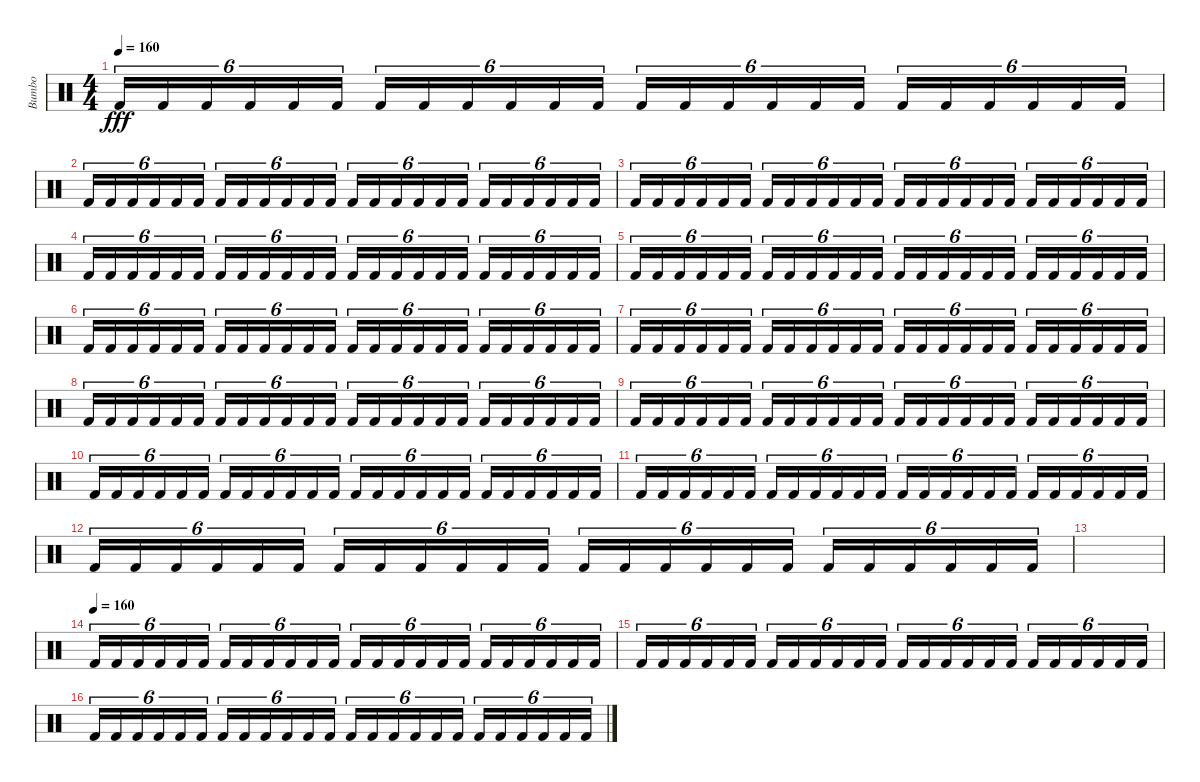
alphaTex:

\track ("Bumbo" "Bumbo") {instrument percussion}
\staff {score}
\articulation defaults
\ts (4 4)
\tempo 160
\clef neutral
\ks c "Kick (hit) 2".16{tu (6 4) dy fff} "Kick (hit) 2".16{tu (6 4)} "Kick (hit) 2".16{tu (6 4)} "Kick (hit) 2".16{tu (6 4)} "Kick (hit) 2".16{tu (6 4)} "Kick (hit) 2".16{tu (6 4)} "Kick (hit) 2".16{tu (6 4)} "Kick (hit) 2".16{tu (6 4)} "Kick (hit) 2".16{tu (6 4)} "Kick (hit) 2".16{tu (6 4)} "Kick (hit) 2".16{tu (6 4)} "Kick (hit) 2".16{tu (6 4)} "Kick (hit) 2".16{tu (6 4)} "Kick (hit) 2".16{tu (6 4)} "Kick (hit) 2".16{tu (6 4)} "Kick (hit) 2".16{tu (6 4)} "Kick (hit) 2".16{tu (6 4)} "Kick (hit) 2".16{tu (6 4)} "Kick (hit) 2".16{tu (6 4)} "Kick (hit) 2".16{tu (6 4)} "Kick (hit) 2".16{tu (6 4)} "Kick (hit) 2".16{tu (6 4)} "Kick (hit) 2".16{tu (6 4)} "Kick (hit) 2".16{tu (6 4)}
|
"Kick (hit) 2".16{tu (6 4)} "Kick (hit) 2".16{tu (6 4)} "Kick (hit) 2".16{tu (6 4)} "Kick (hit) 2".16{tu (6 4)} "Kick (hit) 2".16{tu (6 4)} "Kick (hit) 2".16{tu (6 4)} "Kick (hit) 2".16{tu (6 4)} "Kick (hit) 2".16{tu (6 4)} "Kick (hit) 2".16{tu (6 4)} "Kick (hit) 2".16{tu (6 4)} "Kick (hit) 2".16{tu (6 4)} "Kick (hit) 2".16{tu (6 4)} "Kick (hit) 2".16{tu (6 4)} "Kick (hit) 2".16{tu (6 4)} "Kick (hit) 2".16{tu (6 4)} "Kick (hit) 2".16{tu (6 4)} "Kick (hit) 2".16{tu (6 4)} "Kick (hit) 2".16{tu (6 4)} "Kick (hit) 2".16{tu (6 4)} "Kick (hit) 2".16{tu (6 4)} "Kick (hit) 2".16{tu (6 4)} "Kick (hit) 2".16{tu (6 4)} "Kick (hit) 2".16{tu (6 4)} "Kick (hit) 2".16{tu (6 4)} |
"Kick (hit) 2".16{tu (6 4)} "Kick (hit) 2".16{tu (6 4)} "Kick (hit) 2".16{tu (6 4)} "Kick (hit) 2".16{tu (6 4)} "Kick (hit) 2".16{tu (6 4)} "Kick (hit) 2".16{tu (6 4)} "Kick (hit) 2".16{tu (6 4)} "Kick (hit) 2".16{tu (6 4)} "Kick (hit) 2".16{tu (6 4)} "Kick (hit) 2".16{tu (6 4)} "Kick (hit) 2".16{tu (6 4)} "Kick (hit) 2".16{tu (6 4)} "Kick (hit) 2".16{tu (6 4)} "Kick (hit) 2".16{tu (6 4)} "Kick (hit) 2".16{tu (6 4)} "Kick (hit) 2".16{tu (6 4)} "Kick (hit) 2".16{tu (6 4)} "Kick (hit) 2".16{tu (6 4)} "Kick (hit) 2".16{tu (6 4)} "Kick (hit) 2".16{tu (6 4)} "Kick (hit) 2".16{tu (6 4)} "Kick (hit) 2".16{tu (6 4)} "Kick (hit) 2".16{tu (6 4)} "Kick (hit) 2".16{tu (6 4)} |
"Kick (hit) 2".16{tu (6 4)} "Kick (hit) 2".16{tu (6 4)} "Kick (hit) 2".16{tu (6 4)} "Kick (hit) 2".16{tu (6 4)} "Kick (hit) 2".16{tu (6 4)} "Kick (hit) 2".16{tu (6 4)} "Kick (hit) 2".16{tu (6 4)} "Kick (hit) 2".16{tu (6 4)} "Kick (hit) 2".16{tu (6 4)} "Kick (hit) 2".16{tu (6 4)} "Kick (hit) 2".16{tu (6 4)} "Kick (hit) 2".16{tu (6 4)} "Kick (hit) 2".16{tu (6 4)} "Kick (hit) 2".16{tu (6 4)} "Kick (hit) 2".16{tu (6 4)} "Kick (hit) 2".16{tu (6 4)} "Kick (hit) 2".16{tu (6 4)} "Kick (hit) 2".16{tu (6 4)} "Kick (hit) 2".16{tu (6 4)} "Kick (hit) 2".16{tu (6 4)} "Kick (hit) 2".16{tu (6 4)} "Kick (hit) 2".16{tu (6 4)} "Kick (hit) 2".16{tu (6 4)} "Kick (hit) 2".16{tu (6 4)} |
"Kick (hit) 2".16{tu (6 4)} "Kick (hit) 2".16{tu (6 4)} "Kick (hit) 2".16{tu (6 4)} "Kick (hit) 2".16{tu (6 4)} "Kick (hit) 2".16{tu (6 4)} "Kick (hit) 2".16{tu (6 4)} "Kick (hit) 2".16{tu (6 4)} "Kick (hit) 2".16{tu (6 4)} "Kick (hit) 2".16{tu (6 4)} "Kick (hit) 2".16{tu (6 4)} "Kick (hit) 2".16{tu (6 4)} "Kick (hit) 2".16{tu (6 4)} "Kick (hit) 2".16{tu (6 4)} "Kick (hit) 2".16{tu (6 4)} "Kick (hit) 2".16{tu (6 4)} "Kick (hit) 2".16{tu (6 4)} "Kick (hit) 2".16{tu (6 4)} "Kick (hit) 2".16{tu (6 4)} "Kick (hit) 2".16{tu (6 4)} "Kick (hit) 2".16{tu (6 4)} "Kick (hit) 2".16{tu (6 4)} "Kick (hit) 2".16{tu (6 4)} "Kick (hit) 2".16{tu (6 4)} "Kick (hit) 2".16{tu (6 4)} |
"Kick (hit) 2".16{tu (6 4)} "Kick (hit) 2".16{tu (6 4)} "Kick (hit) 2".16{tu (6 4)} "Kick (hit) 2".16{tu (6 4)} "Kick (hit) 2".16{tu (6 4)} "Kick (hit) 2".16{tu (6 4)} "Kick (hit) 2".16{tu (6 4)} "Kick (hit) 2".16{tu (6 4)} "Kick (hit) 2".16{tu (6 4)} "Kick (hit) 2".16{tu (6 4)} "Kick (hit) 2".16{tu (6 4)} "Kick (hit) 2".16{tu (6 4)} "Kick (hit) 2".16{tu (6 4)} "Kick (hit) 2".16{tu (6 4)} "Kick (hit) 2".16{tu (6 4)} "Kick (hit) 2".16{tu (6 4)} "Kick (hit) 2".16{tu (6 4)} "Kick (hit) 2".16{tu (6 4)} "Kick (hit) 2".16{tu (6 4)} "Kick (hit) 2".16{tu (6 4)} "Kick (hit) 2".16{tu (6 4)} "Kick (hit) 2".16{tu (6 4)} "Kick (hit) 2".16{tu (6 4)} "Kick (hit) 2".16{tu (6 4)} |
"Kick (hit) 2".16{tu (6 4)} "Kick (hit) 2".16{tu (6 4)} "Kick (hit) 2".16{tu (6 4)} "Kick (hit) 2".16{tu (6 4)} "Kick (hit) 2".16{tu (6 4)} "Kick (hit) 2".16{tu (6 4)} "Kick (hit) 2".16{tu (6 4)} "Kick (hit) 2".16{tu (6 4)} "Kick (hit) 2".16{tu (6 4)} "Kick (hit) 2".16{tu (6 4)} "Kick (hit) 2".16{tu (6 4)} "Kick (hit) 2".16{tu (6 4)} "Kick (hit) 2".16{tu (6 4)} "Kick (hit) 2".16{tu (6 4)} "Kick (hit) 2".16{tu (6 4)} "Kick (hit) 2".16{tu (6 4)} "Kick (hit) 2".16{tu (6 4)} "Kick (hit) 2".16{tu (6 4)} "Kick (hit) 2".16{tu (6 4)} "Kick (hit) 2".16{tu (6 4)} "Kick (hit) 2".16{tu (6 4)} "Kick (hit) 2".16{tu (6 4)} "Kick (hit) 2".16{tu (6 4)} "Kick (hit) 2".16{tu (6 4)} |
"Kick (hit) 2".16{tu (6 4)} "Kick (hit) 2".16{tu (6 4)} "Kick (hit) 2".16{tu (6 4)} "Kick (hit) 2".16{tu (6 4)} "Kick (hit) 2".16{tu (6 4)} "Kick (hit) 2".16{tu (6 4)} "Kick (hit) 2".16{tu (6 4)} "Kick (hit) 2".16{tu (6 4)} "Kick (hit) 2".16{tu (6 4)} "Kick (hit) 2".16{tu (6 4)} "Kick (hit) 2".16{tu (6 4)} "Kick (hit) 2".16{tu (6 4)} "Kick (hit) 2".16{tu (6 4)} "Kick (hit) 2".16{tu (6 4)} "Kick (hit) 2".16{tu (6 4)} "Kick (hit) 2".16{tu (6 4)} "Kick (hit) 2".16{tu (6 4)} "Kick (hit) 2".16{tu (6 4)} "Kick (hit) 2".16{tu (6 4)} "Kick (hit) 2".16{tu (6 4)} "Kick (hit) 2".16{tu (6 4)} "Kick (hit) 2".16{tu (6 4)} "Kick (hit) 2".16{tu (6 4)} "Kick (hit) 2".16{tu (6 4)} |
"Kick (hit) 2".16{tu (6 4)} "Kick (hit) 2".16{tu (6 4)} "Kick (hit) 2".16{tu (6 4)} "Kick (hit) 2".16{tu (6 4)} "Kick (hit) 2".16{tu (6 4)} "Kick (hit) 2".16{tu (6 4)} "Kick (hit) 2".16{tu (6 4)} "Kick (hit) 2".16{tu (6 4)} "Kick (hit) 2".16{tu (6 4)} "Kick (hit) 2".16{tu (6 4)} "Kick (hit) 2".16{tu (6 4)} "Kick (hit) 2".16{tu (6 4)} "Kick (hit) 2".16{tu (6 4)} "Kick (hit) 2".16{tu (6 4)} "Kick (hit) 2".16{tu (6 4)} "Kick (hit) 2".16{tu (6 4)} "Kick (hit) 2".16{tu (6 4)} "Kick (hit) 2".16{tu (6 4)} "Kick (hit) 2".16{tu (6 4)} "Kick (hit) 2".16{tu (6 4)} "Kick (hit) 2".16{tu (6 4)} "Kick (hit) 2".16{tu (6 4)} "Kick (hit) 2".16{tu (6 4)} "Kick (hit) 2".16{tu (6 4)} |
"Kick (hit) 2".16{tu (6 4)} "Kick (hit) 2".16{tu (6 4)} "Kick (hit) 2".16{tu (6 4)} "Kick (hit) 2".16{tu (6 4)} "Kick (hit) 2".16{tu (6 4)} "Kick (hit) 2".16{tu (6 4)} "Kick (hit) 2".16{tu (6 4)} "Kick (hit) 2".16{tu (6 4)} "Kick (hit) 2".16{tu (6 4)} "Kick (hit) 2".16{tu (6 4)} "Kick (hit) 2".16{tu (6 4)} "Kick (hit) 2".16{tu (6 4)} "Kick (hit) 2".16{tu (6 4)} "Kick (hit) 2".16{tu (6 4)} "Kick (hit) 2".16{tu (6 4)} "Kick (hit) 2".16{tu (6 4)} "Kick (hit) 2".16{tu (6 4)} "Kick (hit) 2".16{tu (6 4)} "Kick (hit) 2".16{tu (6 4)} "Kick (hit) 2".16{tu (6 4)} "Kick (hit) 2".16{tu (6 4)} "Kick (hit) 2".16{tu (6 4)} "Kick (hit) 2".16{tu (6 4)} "Kick (hit) 2".16{tu (6 4)} |
"Kick (hit) 2".16{tu (6 4)} "Kick (hit) 2".16{tu (6 4)} "Kick (hit) 2".16{tu (6 4)} "Kick (hit) 2".16{tu (6 4)} "Kick (hit) 2".16{tu (6 4)} "Kick (hit) 2".16{tu (6 4)} "Kick (hit) 2".16{tu (6 4)} "Kick (hit) 2".16{tu (6 4)} "Kick (hit) 2".16{tu (6 4)} "Kick (hit) 2".16{tu (6 4)} "Kick (hit) 2".16{tu (6 4)} "Kick (hit) 2".16{tu (6 4)} "Kick (hit) 2".16{tu (6 4)} "Kick (hit) 2".16{tu (6 4)} "Kick (hit) 2".16{tu (6 4)} "Kick (hit) 2".16{tu (6 4)} "Kick (hit) 2".16{tu (6 4)} "Kick (hit) 2".16{tu (6 4)} "Kick (hit) 2".16{tu (6 4)} "Kick (hit) 2".16{tu (6 4)} "Kick (hit) 2".16{tu (6 4)} "Kick (hit) 2".16{tu (6 4)} "Kick (hit) 2".16{tu (6 4)} "Kick (hit) 2".16{tu (6 4)} |
"Kick (hit) 2".16{tu (6 4)} "Kick (hit) 2".16{tu (6 4)} "Kick (hit) 2".16{tu (6 4)} "Kick (hit) 2".16{tu (6 4)} "Kick (hit) 2".16{tu (6 4)} "Kick (hit) 2".16{tu (6 4)} "Kick (hit) 2".16{tu (6 4)} "Kick (hit) 2".16{tu (6 4)} "Kick (hit) 2".16{tu (6 4)} "Kick (hit) 2".16{tu (6 4)} "Kick (hit) 2".16{tu (6 4)} "Kick (hit) 2".16{tu (6 4)} "Kick (hit) 2".16{tu (6 4)} "Kick (hit) 2".16{tu (6 4)} "Kick (hit) 2".16{tu (6 4)} "Kick (hit) 2".16{tu (6 4)} "Kick (hit) 2".16{tu (6 4)} "Kick (hit) 2".16{tu (6 4)} "Kick (hit) 2".16{tu (6 4)} "Kick (hit) 2".16{tu (6 4)} "Kick (hit) 2".16{tu (6 4)} "Kick (hit) 2".16{tu (6 4)} "Kick (hit) 2".16{tu (6 4)} "Kick (hit) 2".16{tu (6 4)} |
|
\tempo (160)
"Kick (hit) 2".16{tu (6 4)} "Kick (hit) 2".16{tu (6 4)} "Kick (hit) 2".16{tu (6 4)} "Kick (hit) 2".16{tu (6 4)} "Kick (hit) 2".16{tu (6 4)} "Kick (hit) 2".16{tu (6 4)} "Kick (hit) 2".16{tu (6 4)} "Kick (hit) 2".16{tu (6 4)} "Kick (hit) 2".16{tu (6 4)} "Kick (hit) 2".16{tu (6 4)} "Kick (hit) 2".16{tu (6 4)} "Kick (hit) 2".16{tu (6 4)} "Kick (hit) 2".16{tu (6 4)} "Kick (hit) 2".16{tu (6 4)} "Kick (hit) 2".16{tu (6 4)} "Kick (hit) 2".16{tu (6 4)} "Kick (hit) 2".16{tu (6 4)} "Kick (hit) 2".16{tu (6 4)} "Kick (hit) 2".16{tu (6 4)} "Kick (hit) 2".16{tu (6 4)} "Kick (hit) 2".16{tu (6 4)} "Kick (hit) 2".16{tu (6 4)} "Kick (hit) 2".16{tu (6 4)} "Kick (hit) 2".16{tu (6 4)} |
"Kick (hit) 2".16{tu (6 4)} "Kick (hit) 2".16{tu (6 4)} "Kick (hit) 2".16{tu (6 4)} "Kick (hit) 2".16{tu (6 4)} "Kick (hit) 2".16{tu (6 4)} "Kick (hit) 2".16{tu (6 4)} "Kick (hit) 2".16{tu (6 4)} "Kick (hit) 2".16{tu (6 4)} "Kick (hit) 2".16{tu (6 4)} "Kick (hit) 2".16{tu (6 4)} "Kick (hit) 2".16{tu (6 4)} "Kick (hit) 2".16{tu (6 4)} "Kick (hit) 2".16{tu (6 4)} "Kick (hit) 2".16{tu (6 4)} "Kick (hit) 2".16{tu (6 4)} "Kick (hit) 2".16{tu (6 4)} "Kick (hit) 2".16{tu (6 4)} "Kick (hit) 2".16{tu (6 4)} "Kick (hit) 2".16{tu (6 4)} "Kick (hit) 2".16{tu (6 4)} "Kick (hit) 2".16{tu (6 4)} "Kick (hit) 2".16{tu (6 4)} "Kick (hit) 2".16{tu (6 4)} "Kick (hit) 2".16{tu (6 4)} |
"Kick (hit) 2".16{tu (6 4)} "Kick (hit) 2".16{tu (6 4)} "Kick (hit) 2".16{tu (6 4)} "Kick (hit) 2".16{tu (6 4)} "Kick (hit) 2".16{tu (6 4)} "Kick (hit) 2".16{tu (6 4)} "Kick (hit) 2".16{tu (6 4)} "Kick (hit) 2".16{tu (6 4)} "Kick (hit) 2".16{tu (6 4)} "Kick (hit) 2".16{tu (6 4)} "Kick (hit) 2".16{tu (6 4)} "Kick (hit) 2".16{tu (6 4)} "Kick (hit) 2".16{tu (6 4)} "Kick (hit) 2".16{tu (6 4)} "Kick (hit) 2".16{tu (6 4)} "Kick (hit) 2".16{tu (6 4)} "Kick (hit) 2".16{tu (6 4)} "Kick (hit) 2".16{tu (6 4)} "Kick (hit) 2".16{tu (6 4)} "Kick (hit) 2".16{tu (6 4)} "Kick (hit) 2".16{tu (6 4)} "Kick (hit) 2".16{tu (6 4)} "Kick (hit) 2".16{tu (6 4)} "Kick (hit) 2".16{tu (6 4)}
